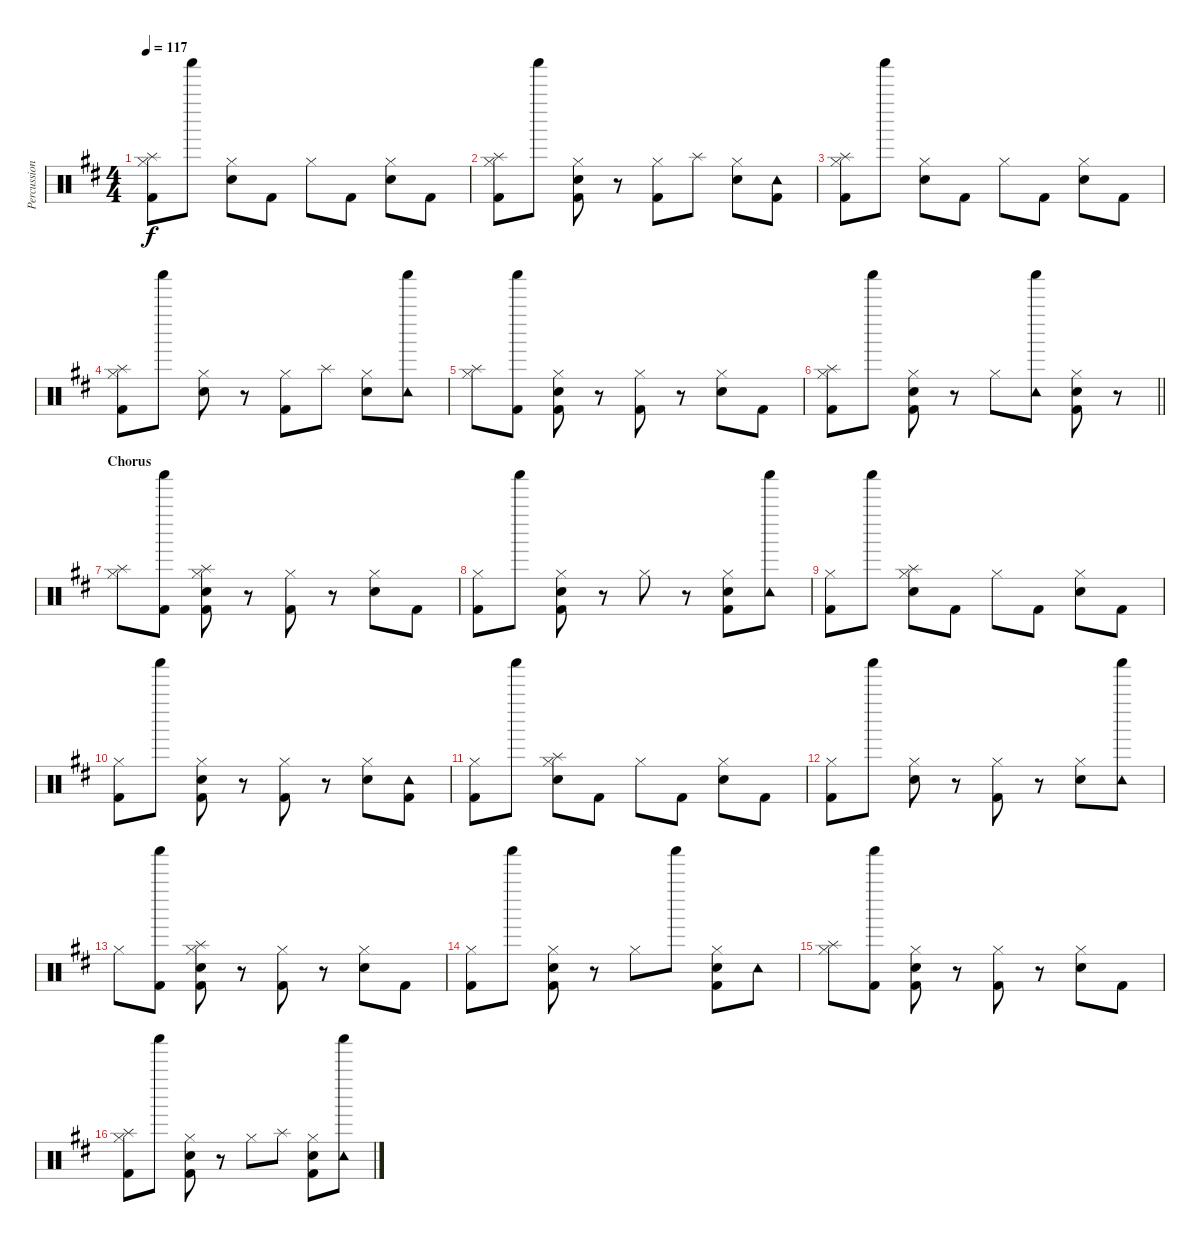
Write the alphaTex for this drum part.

\track ("Percussion" "Percussion") {instrument percussion}
\staff {score}
\articulation defaults
\ts (4 4)
\tempo 117
\clef neutral
\ks d
("Hi-Hat (closed)" "Splash (hit)" "Kick (hit) 2").8{dy f} "Shaker (hit)".8 ("Hi-Hat (closed)" "Snare (hit) 2").8 "Kick (hit) 2".8 "Hi-Hat (closed)".8 "Kick (hit) 2".8 ("Hi-Hat (closed)" "Snare (hit) 2").8 "Kick (hit) 2".8 |
("Hi-Hat (closed)" "Splash (hit)" "Kick (hit) 2").8 "Shaker (hit)".8 ("Hi-Hat (closed)" "Snare (hit) 2" "Kick (hit) 2").8 r.8 ("Hi-Hat (closed)" "Kick (hit) 2").8 "Splash (hit)".8 ("Hi-Hat (closed)" "Snare (hit) 2").8 ("Tambourine (hit)" "Kick (hit) 2").8 |
("Hi-Hat (closed)" "Splash (hit)" "Kick (hit) 2").8 "Shaker (hit)".8 ("Hi-Hat (closed)" "Snare (hit) 2").8 "Kick (hit) 2".8 "Hi-Hat (closed)".8 "Kick (hit) 2".8 ("Hi-Hat (closed)" "Snare (hit) 2").8 "Kick (hit) 2".8 |
("Hi-Hat (closed)" "Splash (hit)" "Kick (hit) 2").8 "Shaker (hit)".8 ("Hi-Hat (closed)" "Snare (hit) 2").8 r.8 ("Hi-Hat (closed)" "Kick (hit) 2").8 "Splash (hit)".8 ("Hi-Hat (closed)" "Snare (hit) 2").8 ("Shaker (hit)" "Tambourine (hit)").8 |
("Hi-Hat (closed)" "Splash (hit)").8 ("Shaker (hit)" "Kick (hit) 2").8 ("Hi-Hat (closed)" "Snare (hit) 2" "Kick (hit) 2").8 r.8 ("Hi-Hat (closed)" "Kick (hit) 2").8 r.8 ("Hi-Hat (closed)" "Snare (hit) 2").8 "Kick (hit) 2".8 |
\barLineRight lightlight
("Hi-Hat (closed)" "Splash (hit)" "Kick (hit) 2").8 "Shaker (hit)".8 ("Hi-Hat (closed)" "Snare (hit) 2" "Kick (hit) 2").8 r.8 "Hi-Hat (closed)".8 ("Shaker (hit)" "Tambourine (hit)").8 ("Hi-Hat (closed)" "Snare (hit) 2" "Kick (hit) 2").8 r.8 |
\section ("" "Chorus")
("Hi-Hat (closed)" "Splash (hit)").8 ("Shaker (hit)" "Kick (hit) 2").8 ("Hi-Hat (closed)" "Splash (hit)" "Snare (hit) 2" "Kick (hit) 2").8 r.8 ("Hi-Hat (closed)" "Kick (hit) 2").8 r.8 ("Hi-Hat (closed)" "Snare (hit) 2").8 "Kick (hit) 2".8 |
("Hi-Hat (closed)" "Kick (hit) 2").8 "Shaker (hit)".8 ("Hi-Hat (closed)" "Snare (hit) 2" "Kick (hit) 2").8 r.8 "Hi-Hat (closed)".8 r.8 ("Hi-Hat (closed)" "Snare (hit) 2" "Kick (hit) 2").8 ("Shaker (hit)" "Tambourine (hit)").8 |
("Hi-Hat (closed)" "Kick (hit) 2").8 "Shaker (hit)".8 ("Hi-Hat (closed)" "Splash (hit)" "Snare (hit) 2").8 "Kick (hit) 2".8 "Hi-Hat (closed)".8 "Kick (hit) 2".8 ("Hi-Hat (closed)" "Snare (hit) 2").8 "Kick (hit) 2".8 |
("Hi-Hat (closed)" "Kick (hit) 2").8 "Shaker (hit)".8 ("Hi-Hat (closed)" "Snare (hit) 2" "Kick (hit) 2").8 r.8 ("Hi-Hat (closed)" "Kick (hit) 2").8 r.8 ("Hi-Hat (closed)" "Snare (hit) 2").8 ("Tambourine (hit)" "Kick (hit) 2").8 |
("Hi-Hat (closed)" "Kick (hit) 2").8 "Shaker (hit)".8 ("Hi-Hat (closed)" "Splash (hit)" "Snare (hit) 2").8 "Kick (hit) 2".8 "Hi-Hat (closed)".8 "Kick (hit) 2".8 ("Hi-Hat (closed)" "Snare (hit) 2").8 "Kick (hit) 2".8 |
("Hi-Hat (closed)" "Kick (hit) 2").8 "Shaker (hit)".8 ("Hi-Hat (closed)" "Snare (hit) 2").8 r.8 ("Hi-Hat (closed)" "Kick (hit) 2").8 r.8 ("Hi-Hat (closed)" "Snare (hit) 2").8 ("Shaker (hit)" "Tambourine (hit)").8 |
"Hi-Hat (closed)".8 ("Shaker (hit)" "Kick (hit) 2").8 ("Hi-Hat (closed)" "Splash (hit)" "Snare (hit) 2" "Kick (hit) 2").8 r.8 ("Hi-Hat (closed)" "Kick (hit) 2").8 r.8 ("Hi-Hat (closed)" "Snare (hit) 2").8 "Kick (hit) 2".8 |
("Hi-Hat (closed)" "Kick (hit) 2").8 "Shaker (hit)".8 ("Hi-Hat (closed)" "Snare (hit) 2" "Kick (hit) 2").8 r.8 "Hi-Hat (closed)".8 "Shaker (hit)".8 ("Hi-Hat (closed)" "Snare (hit) 2" "Kick (hit) 2").8 "Tambourine (hit)".8 |
("Hi-Hat (closed)" "Splash (hit)").8 ("Shaker (hit)" "Kick (hit) 2").8 ("Hi-Hat (closed)" "Snare (hit) 2" "Kick (hit) 2").8 r.8 ("Hi-Hat (closed)" "Kick (hit) 2").8 r.8 ("Hi-Hat (closed)" "Snare (hit) 2").8 "Kick (hit) 2".8 |
("Hi-Hat (closed)" "Splash (hit)" "Kick (hit) 2").8 "Shaker (hit)".8 ("Hi-Hat (closed)" "Snare (hit) 2" "Kick (hit) 2").8 r.8 "Hi-Hat (closed)".8 "Splash (hit)".8 ("Hi-Hat (closed)" "Snare (hit) 2" "Kick (hit) 2").8 ("Shaker (hit)" "Tambourine (hit)").8
